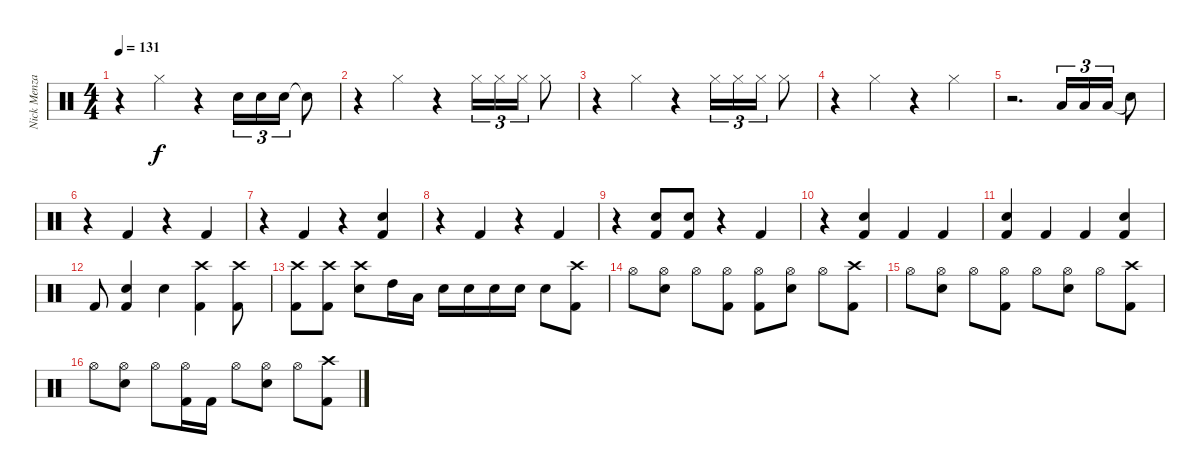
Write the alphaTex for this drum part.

\track ("Nick Menza" "Nick Menza") {instrument percussion}
\staff {score}
\articulation defaults
\ts (4 4)
\tempo 131
\clef neutral
\ks c
r.4{dy f} "Hi-Hat (closed)".4 r.4 "Snare (hit) 2".16{tu (3 2)} "Snare (hit) 2".16{tu (3 2)} "Snare (hit) 2".16{tu (3 2)} "Snare (hit)"{t}.8 |
r.4 "Hi-Hat (closed)".4 r.4 "Hi-Hat (closed)".16{tu (3 2)} "Hi-Hat (closed)".16{tu (3 2)} "Hi-Hat (closed)".16{tu (3 2)} "Hi-Hat (closed)".8 |
r.4 "Hi-Hat (closed)".4 r.4 "Hi-Hat (closed)".16{tu (3 2)} "Hi-Hat (closed)".16{tu (3 2)} "Hi-Hat (closed)".16{tu (3 2)} "Hi-Hat (closed)".8 |
r.4 "Hi-Hat (closed)".4 r.4 "Hi-Hat (closed)".4 |
r.2{d} "Low Tom (hit)".16{tu (3 2)} "Low Tom (hit)".16{tu (3 2)} "Low Tom (hit)".16{tu (3 2)} "Snare (hit)"{t}.8 |
r.4 "Kick (hit) 2".4 r.4 "Kick (hit) 2".4 |
r.4 "Kick (hit) 2".4 r.4 ("Snare (hit) 2" "Kick (hit) 2").4 |
r.4 "Kick (hit) 2".4 r.4 "Kick (hit) 2".4 |
r.4 ("Snare (hit) 2" "Kick (hit) 2").8 ("Snare (hit) 2" "Kick (hit) 2").8 r.4 "Kick (hit) 2".4 |
r.4 ("Snare (hit) 2" "Kick (hit) 2").4 "Kick (hit) 2".4 "Kick (hit) 2".4 |
("Snare (hit) 2" "Kick (hit) 2").4 "Kick (hit) 2".4 "Kick (hit) 2".4 ("Snare (hit) 2" "Kick (hit) 2").4 |
"Kick (hit) 2".8 ("Snare (hit) 2" "Kick (hit) 2").4 "Snare (hit) 2".4 ("Crash high (hit)" "Kick (hit) 2").4 ("Crash high (hit)" "Kick (hit) 2").8 |
("Crash high (hit)" "Kick (hit) 2").8 ("Crash high (hit)" "Kick (hit) 2").8 ("Crash high (hit)" "Snare (hit) 2").8 "High Tom (hit)".16 "Low Tom (hit)".16 "Snare (hit) 2".16 "Snare (hit) 2".16 "Snare (hit) 2".16 "Snare (hit) 2".16 "Snare (hit) 2".8 ("Crash high (hit)" "Kick (hit) 2").8 |
"Hi-Hat (open)".8 ("Hi-Hat (open)" "Snare (hit) 2").8 "Hi-Hat (open)".8 ("Hi-Hat (open)" "Kick (hit) 2").8 ("Hi-Hat (open)" "Kick (hit) 2").8 ("Hi-Hat (open)" "Snare (hit) 2").8 "Hi-Hat (open)".8 ("Crash high (hit)" "Kick (hit) 2").8 |
"Hi-Hat (open)".8 ("Hi-Hat (open)" "Snare (hit) 2").8 "Hi-Hat (open)".8 ("Hi-Hat (open)" "Kick (hit) 2").8 "Hi-Hat (open)".8 ("Hi-Hat (open)" "Snare (hit) 2").8 "Hi-Hat (open)".8 ("Crash high (hit)" "Kick (hit) 2").8 |
"Hi-Hat (open)".8 ("Hi-Hat (open)" "Snare (hit) 2").8 "Hi-Hat (open)".8 ("Hi-Hat (open)" "Kick (hit) 2").16 "Kick (hit) 2".16 "Hi-Hat (open)".8 ("Hi-Hat (open)" "Snare (hit) 2").8 "Hi-Hat (open)".8 ("Crash high (hit)" "Kick (hit) 2").8
